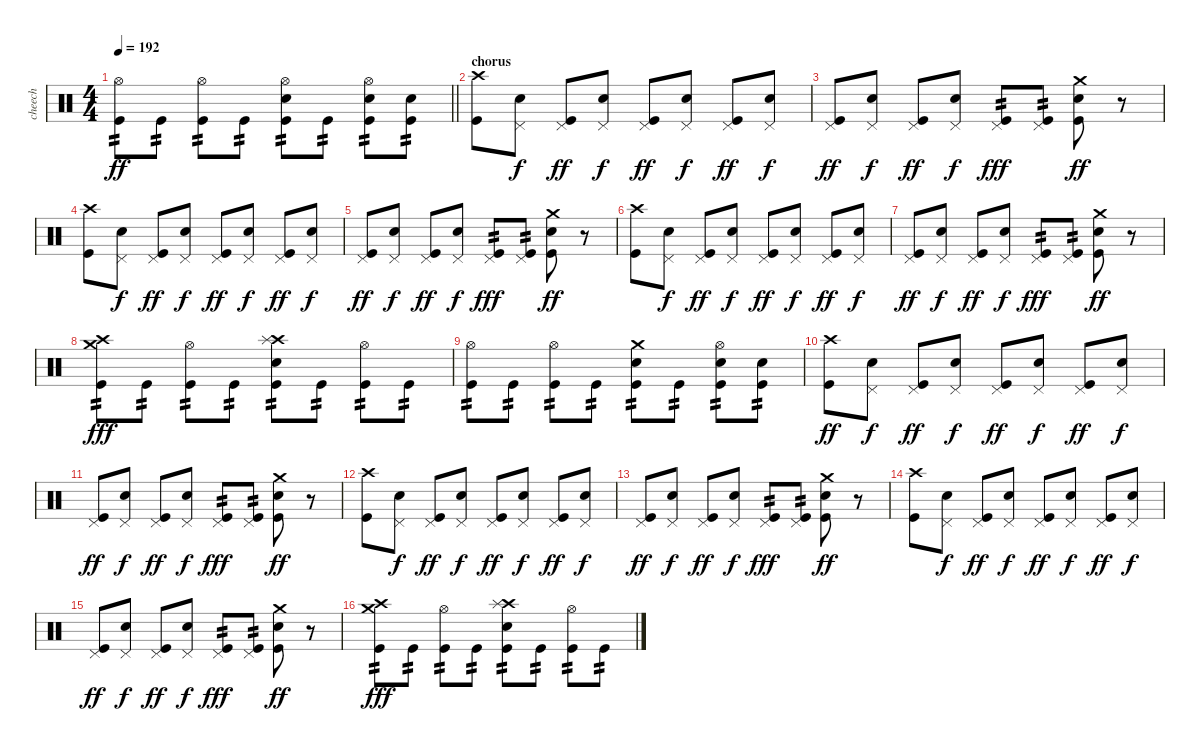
\track ("cheech" "cheech") {instrument percussion}
\staff {score}
\articulation defaults
\ts (4 4)
\tempo 192
\clef neutral
\barLineRight lightlight
\ks c
("Hi-Hat (open)" "Kick (hit)").8{tp 2 dy ff} "Kick (hit)".8{tp 2} ("Hi-Hat (open)" "Kick (hit)").8{tp 2} "Kick (hit)".8{tp 2} ("Hi-Hat (open)" "Electric Snare (hit)" "Kick (hit)").8{tp 2} "Kick (hit)".8{tp 2} ("Hi-Hat (open)" "Electric Snare (hit)" "Kick (hit)").8{tp 2} ("Electric Snare (hit)" "Kick (hit)").8{tp 2} |
\section ("" "chorus")
("Crash high (hit)" "Kick (hit)").8 ("Pedal Hi-Hat (hit)" "Electric Snare (hit)").8{dy f} ("Pedal Hi-Hat (hit)" "Kick (hit)").8{dy ff} ("Pedal Hi-Hat (hit)" "Electric Snare (hit)").8{dy f} ("Pedal Hi-Hat (hit)" "Kick (hit)").8{dy ff} ("Pedal Hi-Hat (hit)" "Electric Snare (hit)").8{dy f} ("Pedal Hi-Hat (hit)" "Kick (hit)").8{dy ff} ("Pedal Hi-Hat (hit)" "Electric Snare (hit)").8{dy f} |
("Pedal Hi-Hat (hit)" "Kick (hit)").8{dy ff} ("Pedal Hi-Hat (hit)" "Electric Snare (hit)").8{dy f} ("Pedal Hi-Hat (hit)" "Kick (hit)").8{dy ff} ("Pedal Hi-Hat (hit)" "Electric Snare (hit)").8{dy f} ("Pedal Hi-Hat (hit)" "Kick (hit)").8{tp 2 dy fff} ("Pedal Hi-Hat (hit)" "Kick (hit)").8{tp 2} ("Crash medium (hit)" "Electric Snare (hit)" "Kick (hit)").8{dy ff} r.8 |
("Crash high (hit)" "Kick (hit)").8 ("Pedal Hi-Hat (hit)" "Electric Snare (hit)").8{dy f} ("Pedal Hi-Hat (hit)" "Kick (hit)").8{dy ff} ("Pedal Hi-Hat (hit)" "Electric Snare (hit)").8{dy f} ("Pedal Hi-Hat (hit)" "Kick (hit)").8{dy ff} ("Pedal Hi-Hat (hit)" "Electric Snare (hit)").8{dy f} ("Pedal Hi-Hat (hit)" "Kick (hit)").8{dy ff} ("Pedal Hi-Hat (hit)" "Electric Snare (hit)").8{dy f} |
("Pedal Hi-Hat (hit)" "Kick (hit)").8{dy ff} ("Pedal Hi-Hat (hit)" "Electric Snare (hit)").8{dy f} ("Pedal Hi-Hat (hit)" "Kick (hit)").8{dy ff} ("Pedal Hi-Hat (hit)" "Electric Snare (hit)").8{dy f} ("Pedal Hi-Hat (hit)" "Kick (hit)").8{tp 2 dy fff} ("Pedal Hi-Hat (hit)" "Kick (hit)").8{tp 2} ("Crash medium (hit)" "Electric Snare (hit)" "Kick (hit)").8{dy ff} r.8 |
("Crash high (hit)" "Kick (hit)").8 ("Pedal Hi-Hat (hit)" "Electric Snare (hit)").8{dy f} ("Pedal Hi-Hat (hit)" "Kick (hit)").8{dy ff} ("Pedal Hi-Hat (hit)" "Electric Snare (hit)").8{dy f} ("Pedal Hi-Hat (hit)" "Kick (hit)").8{dy ff} ("Pedal Hi-Hat (hit)" "Electric Snare (hit)").8{dy f} ("Pedal Hi-Hat (hit)" "Kick (hit)").8{dy ff} ("Pedal Hi-Hat (hit)" "Electric Snare (hit)").8{dy f} |
("Pedal Hi-Hat (hit)" "Kick (hit)").8{dy ff} ("Pedal Hi-Hat (hit)" "Electric Snare (hit)").8{dy f} ("Pedal Hi-Hat (hit)" "Kick (hit)").8{dy ff} ("Pedal Hi-Hat (hit)" "Electric Snare (hit)").8{dy f} ("Pedal Hi-Hat (hit)" "Kick (hit)").8{tp 2 dy fff} ("Pedal Hi-Hat (hit)" "Kick (hit)").8{tp 2} ("Crash medium (hit)" "Electric Snare (hit)" "Kick (hit)").8{dy ff} r.8 |
("Crash medium (hit)" "Crash high (hit)" "Kick (hit)").8{tp 2 dy fff} "Kick (hit)".8{tp 2} ("Hi-Hat (open)" "Kick (hit)").8{tp 2} "Kick (hit)".8{tp 2} ("Crash high (hit)" "Splash (hit)" "Electric Snare (hit)" "Kick (hit)").8{tp 2} "Kick (hit)".8{tp 2} ("Hi-Hat (open)" "Kick (hit)").8{tp 2} "Kick (hit)".8{tp 2} |
("Hi-Hat (open)" "Kick (hit)").8{tp 2} "Kick (hit)".8{tp 2} ("Hi-Hat (open)" "Kick (hit)").8{tp 2} "Kick (hit)".8{tp 2} ("Crash medium (hit)" "Electric Snare (hit)" "Kick (hit)").8{tp 2} "Kick (hit)".8{tp 2} ("Hi-Hat (open)" "Electric Snare (hit)" "Kick (hit)").8{tp 2} ("Electric Snare (hit)" "Kick (hit)").8{tp 2} |
("Crash high (hit)" "Kick (hit)").8{dy ff} ("Pedal Hi-Hat (hit)" "Electric Snare (hit)").8{dy f} ("Pedal Hi-Hat (hit)" "Kick (hit)").8{dy ff} ("Pedal Hi-Hat (hit)" "Electric Snare (hit)").8{dy f} ("Pedal Hi-Hat (hit)" "Kick (hit)").8{dy ff} ("Pedal Hi-Hat (hit)" "Electric Snare (hit)").8{dy f} ("Pedal Hi-Hat (hit)" "Kick (hit)").8{dy ff} ("Pedal Hi-Hat (hit)" "Electric Snare (hit)").8{dy f} |
("Pedal Hi-Hat (hit)" "Kick (hit)").8{dy ff} ("Pedal Hi-Hat (hit)" "Electric Snare (hit)").8{dy f} ("Pedal Hi-Hat (hit)" "Kick (hit)").8{dy ff} ("Pedal Hi-Hat (hit)" "Electric Snare (hit)").8{dy f} ("Pedal Hi-Hat (hit)" "Kick (hit)").8{tp 2 dy fff} ("Pedal Hi-Hat (hit)" "Kick (hit)").8{tp 2} ("Crash medium (hit)" "Electric Snare (hit)" "Kick (hit)").8{dy ff} r.8 |
("Crash high (hit)" "Kick (hit)").8 ("Pedal Hi-Hat (hit)" "Electric Snare (hit)").8{dy f} ("Pedal Hi-Hat (hit)" "Kick (hit)").8{dy ff} ("Pedal Hi-Hat (hit)" "Electric Snare (hit)").8{dy f} ("Pedal Hi-Hat (hit)" "Kick (hit)").8{dy ff} ("Pedal Hi-Hat (hit)" "Electric Snare (hit)").8{dy f} ("Pedal Hi-Hat (hit)" "Kick (hit)").8{dy ff} ("Pedal Hi-Hat (hit)" "Electric Snare (hit)").8{dy f} |
("Pedal Hi-Hat (hit)" "Kick (hit)").8{dy ff} ("Pedal Hi-Hat (hit)" "Electric Snare (hit)").8{dy f} ("Pedal Hi-Hat (hit)" "Kick (hit)").8{dy ff} ("Pedal Hi-Hat (hit)" "Electric Snare (hit)").8{dy f} ("Pedal Hi-Hat (hit)" "Kick (hit)").8{tp 2 dy fff} ("Pedal Hi-Hat (hit)" "Kick (hit)").8{tp 2} ("Crash medium (hit)" "Electric Snare (hit)" "Kick (hit)").8{dy ff} r.8 |
("Crash high (hit)" "Kick (hit)").8 ("Pedal Hi-Hat (hit)" "Electric Snare (hit)").8{dy f} ("Pedal Hi-Hat (hit)" "Kick (hit)").8{dy ff} ("Pedal Hi-Hat (hit)" "Electric Snare (hit)").8{dy f} ("Pedal Hi-Hat (hit)" "Kick (hit)").8{dy ff} ("Pedal Hi-Hat (hit)" "Electric Snare (hit)").8{dy f} ("Pedal Hi-Hat (hit)" "Kick (hit)").8{dy ff} ("Pedal Hi-Hat (hit)" "Electric Snare (hit)").8{dy f} |
("Pedal Hi-Hat (hit)" "Kick (hit)").8{dy ff} ("Pedal Hi-Hat (hit)" "Electric Snare (hit)").8{dy f} ("Pedal Hi-Hat (hit)" "Kick (hit)").8{dy ff} ("Pedal Hi-Hat (hit)" "Electric Snare (hit)").8{dy f} ("Pedal Hi-Hat (hit)" "Kick (hit)").8{tp 2 dy fff} ("Pedal Hi-Hat (hit)" "Kick (hit)").8{tp 2} ("Crash medium (hit)" "Electric Snare (hit)" "Kick (hit)").8{dy ff} r.8 |
("Crash medium (hit)" "Crash high (hit)" "Kick (hit)").8{tp 2 dy fff} "Kick (hit)".8{tp 2} ("Hi-Hat (open)" "Kick (hit)").8{tp 2} "Kick (hit)".8{tp 2} ("Crash high (hit)" "Splash (hit)" "Electric Snare (hit)" "Kick (hit)").8{tp 2} "Kick (hit)".8{tp 2} ("Hi-Hat (open)" "Kick (hit)").8{tp 2} "Kick (hit)".8{tp 2}
